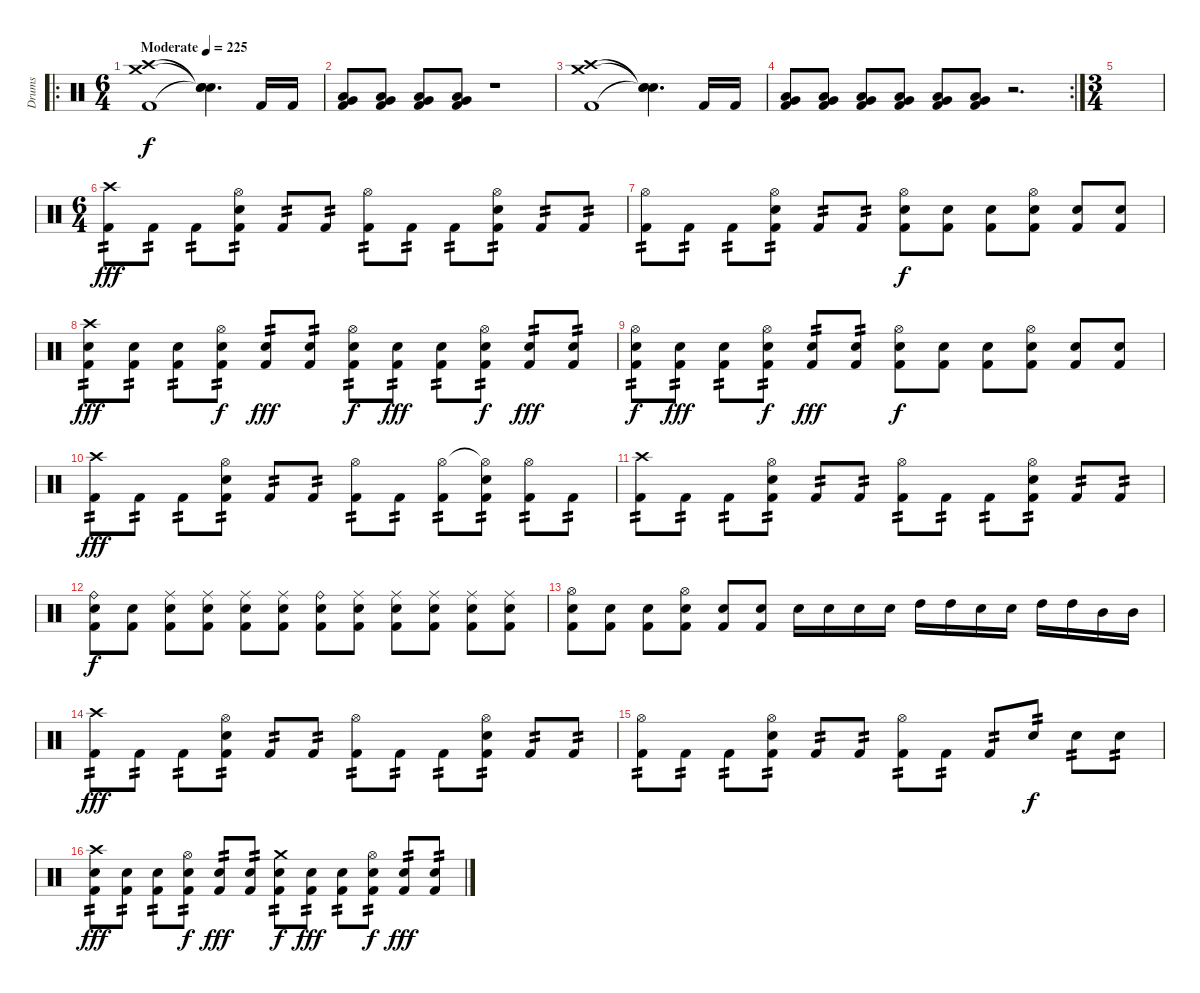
\track ("Drums" "Drums") {instrument percussion}
\staff {score}
\articulation defaults
\ro
\ts (6 4)
\tempo (225 "Moderate")
\clef neutral
\ks c
("Crash medium (hit)" "Crash high (hit)" "Kick (hit) 2").1{dy f} ("Snare (hit)"{t} "Snare (hit)"{t} "Snare (hit)"{t}).4{d} "Kick (hit) 2".16 "Kick (hit) 2".16 |
("Very Low Tom (hit)" "Low Floor Tom (hit)" "Kick (hit) 2").8 ("Very Low Tom (hit)" "Low Floor Tom (hit)" "Kick (hit) 2").8 ("Very Low Tom (hit)" "Low Floor Tom (hit)" "Kick (hit) 2").8 ("Very Low Tom (hit)" "Low Floor Tom (hit)" "Kick (hit) 2").8 r.1 |
("Crash medium (hit)" "Crash high (hit)" "Kick (hit) 2").1 ("Snare (hit)"{t} "Snare (hit)"{t} "Snare (hit)"{t}).4{d} "Kick (hit) 2".16 "Kick (hit) 2".16 |
\rc 2
("Very Low Tom (hit)" "Low Floor Tom (hit)" "Kick (hit) 2").8 ("Very Low Tom (hit)" "Low Floor Tom (hit)" "Kick (hit) 2").8 ("Very Low Tom (hit)" "Low Floor Tom (hit)" "Kick (hit) 2").8 ("Very Low Tom (hit)" "Low Floor Tom (hit)" "Kick (hit) 2").8 ("Very Low Tom (hit)" "Low Floor Tom (hit)" "Kick (hit) 2").8 ("Very Low Tom (hit)" "Low Floor Tom (hit)" "Kick (hit) 2").8 r.2{d} |
\ts (3 4)
|
\ts (6 4)
("Crash high (hit)" "Kick (hit) 2").8{tp 2 dy fff} "Kick (hit) 2".8{tp 2} "Kick (hit) 2".8{tp 2} ("Hi-Hat (open)" "Snare (hit) 2" "Kick (hit) 2").8{tp 2} "Kick (hit) 2".8{tp 2} "Kick (hit) 2".8{tp 2} ("Hi-Hat (open)" "Kick (hit) 2").8{tp 2} "Kick (hit) 2".8{tp 2} "Kick (hit) 2".8{tp 2} ("Hi-Hat (open)" "Snare (hit) 2" "Kick (hit) 2").8{tp 2} "Kick (hit) 2".8{tp 2} "Kick (hit) 2".8{tp 2} |
("Hi-Hat (open)" "Kick (hit) 2").8{tp 2} "Kick (hit) 2".8{tp 2} "Kick (hit) 2".8{tp 2} ("Hi-Hat (open)" "Snare (hit) 2" "Kick (hit) 2").8{tp 2} "Kick (hit) 2".8{tp 2} "Kick (hit) 2".8{tp 2} ("Hi-Hat (open)" "Snare (hit) 2" "Kick (hit) 2").8{dy f} ("Snare (hit) 2" "Kick (hit) 2").8 ("Snare (hit) 2" "Kick (hit) 2").8 ("Hi-Hat (open)" "Snare (hit) 2" "Kick (hit) 2").8 ("Snare (hit) 2" "Kick (hit) 2").8 ("Snare (hit) 2" "Kick (hit) 2").8 |
("Crash high (hit)" "Snare (hit) 2" "Kick (hit) 2").8{tp 2 dy fff} ("Snare (hit) 2" "Kick (hit) 2").8{tp 2} ("Snare (hit) 2" "Kick (hit) 2").8{tp 2} ("Hi-Hat (open)" "Snare (hit) 2" "Kick (hit) 2").8{tp 2 dy f} ("Snare (hit) 2" "Kick (hit) 2").8{tp 2 dy fff} ("Snare (hit) 2" "Kick (hit) 2").8{tp 2} ("Hi-Hat (open)" "Snare (hit) 2" "Kick (hit) 2").8{tp 2 dy f} ("Snare (hit) 2" "Kick (hit) 2").8{tp 2 dy fff} ("Snare (hit) 2" "Kick (hit) 2").8{tp 2} ("Hi-Hat (open)" "Snare (hit) 2" "Kick (hit) 2").8{tp 2 dy f} ("Snare (hit) 2" "Kick (hit) 2").8{tp 2 dy fff} ("Snare (hit) 2" "Kick (hit) 2").8{tp 2} |
("Hi-Hat (open)" "Snare (hit) 2" "Kick (hit) 2").8{tp 2 dy f} ("Snare (hit) 2" "Kick (hit) 2").8{tp 2 dy fff} ("Snare (hit) 2" "Kick (hit) 2").8{tp 2} ("Hi-Hat (open)" "Snare (hit) 2" "Kick (hit) 2").8{tp 2 dy f} ("Snare (hit) 2" "Kick (hit) 2").8{tp 2 dy fff} ("Snare (hit) 2" "Kick (hit) 2").8{tp 2} ("Hi-Hat (open)" "Snare (hit) 2" "Kick (hit) 2").8{dy f} ("Snare (hit) 2" "Kick (hit) 2").8 ("Snare (hit) 2" "Kick (hit) 2").8 ("Hi-Hat (open)" "Snare (hit) 2" "Kick (hit) 2").8 ("Snare (hit) 2" "Kick (hit) 2").8 ("Snare (hit) 2" "Kick (hit) 2").8 |
("Crash high (hit)" "Kick (hit) 2").8{tp 2 dy fff} "Kick (hit) 2".8{tp 2} "Kick (hit) 2".8{tp 2} ("Hi-Hat (open)" "Snare (hit) 2" "Kick (hit) 2").8{tp 2} "Kick (hit) 2".8{tp 2} "Kick (hit) 2".8{tp 2} ("Hi-Hat (open)" "Kick (hit) 2").8{tp 2} "Kick (hit) 2".8{tp 2} ("Hi-Hat (open)" "Kick (hit) 2").8{tp 2} ("Hi-Hat (open)"{t} "Snare (hit) 2" "Kick (hit) 2").8{tp 2} ("Hi-Hat (open)" "Kick (hit) 2").8{tp 2} "Kick (hit) 2".8{tp 2} |
("Crash high (hit)" "Kick (hit) 2").8{tp 2} "Kick (hit) 2".8{tp 2} "Kick (hit) 2".8{tp 2} ("Hi-Hat (open)" "Snare (hit) 2" "Kick (hit) 2").8{tp 2} "Kick (hit) 2".8{tp 2} "Kick (hit) 2".8{tp 2} ("Hi-Hat (open)" "Kick (hit) 2").8{tp 2} "Kick (hit) 2".8{tp 2} "Kick (hit) 2".8{tp 2} ("Hi-Hat (open)" "Snare (hit) 2" "Kick (hit) 2").8{tp 2} "Kick (hit) 2".8{tp 2} "Kick (hit) 2".8{tp 2} |
("Ride (bell)" "Snare (hit) 2" "Kick (hit) 2").8{dy f} ("Snare (hit) 2" "Kick (hit) 2").8 ("Ride (middle)" "Snare (hit) 2" "Kick (hit) 2").8 ("Ride (middle)" "Snare (hit) 2" "Kick (hit) 2").8 ("Ride (middle)" "Snare (hit) 2" "Kick (hit) 2").8 ("Ride (middle)" "Snare (hit) 2" "Kick (hit) 2").8 ("Ride (bell)" "Snare (hit) 2" "Kick (hit) 2").8 ("Ride (middle)" "Snare (hit) 2" "Kick (hit) 2").8 ("Ride (middle)" "Snare (hit) 2" "Kick (hit) 2").8 ("Ride (middle)" "Snare (hit) 2" "Kick (hit) 2").8 ("Ride (middle)" "Snare (hit) 2" "Kick (hit) 2").8 ("Ride (middle)" "Snare (hit) 2" "Kick (hit) 2").8 |
("Hi-Hat (open)" "Snare (hit) 2" "Kick (hit) 2").8 ("Snare (hit) 2" "Kick (hit) 2").8 ("Snare (hit) 2" "Kick (hit) 2").8 ("Hi-Hat (open)" "Snare (hit) 2" "Kick (hit) 2").8 ("Snare (hit) 2" "Kick (hit) 2").8 ("Snare (hit) 2" "Kick (hit) 2").8 "Snare (hit) 2".16 "Snare (hit) 2".16 "Snare (hit) 2".16 "Snare (hit) 2".16 "High Tom (hit)".16 "High Tom (hit)".16 "Snare (hit) 2".16 "Snare (hit) 2".16 "High Tom (hit)".16 "High Tom (hit)".16 "Mid Tom (hit)".16 "Mid Tom (hit)".16 |
("Crash high (hit)" "Kick (hit) 2").8{tp 2 dy fff} "Kick (hit) 2".8{tp 2} "Kick (hit) 2".8{tp 2} ("Hi-Hat (open)" "Snare (hit) 2" "Kick (hit) 2").8{tp 2} "Kick (hit) 2".8{tp 2} "Kick (hit) 2".8{tp 2} ("Hi-Hat (open)" "Kick (hit) 2").8{tp 2} "Kick (hit) 2".8{tp 2} "Kick (hit) 2".8{tp 2} ("Hi-Hat (open)" "Snare (hit) 2" "Kick (hit) 2").8{tp 2} "Kick (hit) 2".8{tp 2} "Kick (hit) 2".8{tp 2} |
("Hi-Hat (open)" "Kick (hit) 2").8{tp 2} "Kick (hit) 2".8{tp 2} "Kick (hit) 2".8{tp 2} ("Hi-Hat (open)" "Snare (hit) 2" "Kick (hit) 2").8{tp 2} "Kick (hit) 2".8{tp 2} "Kick (hit) 2".8{tp 2} ("Hi-Hat (open)" "Kick (hit) 2").8{tp 2} "Kick (hit) 2".8{tp 2} "Kick (hit) 2".8{tp 2} "Snare (hit) 2".8{tp 2 dy f} "Snare (hit) 2".8{tp 2} "Snare (hit) 2".8{tp 2} |
("Crash high (hit)" "Snare (hit) 2" "Kick (hit) 2").8{tp 2 dy fff} ("Snare (hit) 2" "Kick (hit) 2").8{tp 2} ("Snare (hit) 2" "Kick (hit) 2").8{tp 2} ("Hi-Hat (open)" "Snare (hit) 2" "Kick (hit) 2").8{tp 2 dy f} ("Snare (hit) 2" "Kick (hit) 2").8{tp 2 dy fff} ("Snare (hit) 2" "Kick (hit) 2").8{tp 2} ("Crash medium (hit)" "Snare (hit) 2" "Kick (hit) 2").8{tp 2 dy f} ("Snare (hit) 2" "Kick (hit) 2").8{tp 2 dy fff} ("Snare (hit) 2" "Kick (hit) 2").8{tp 2} ("Hi-Hat (open)" "Snare (hit) 2" "Kick (hit) 2").8{tp 2 dy f} ("Snare (hit) 2" "Kick (hit) 2").8{tp 2 dy fff} ("Snare (hit) 2" "Kick (hit) 2").8{tp 2}
